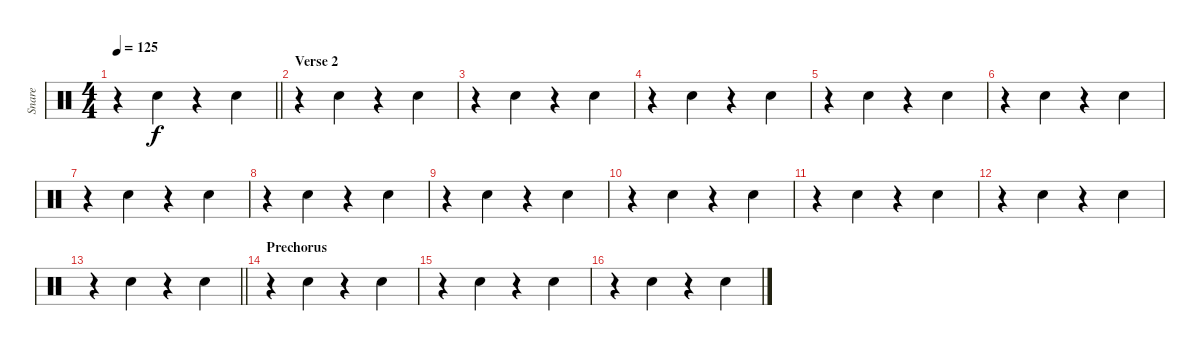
\track ("Snare" "Snare") {instrument percussion}
\staff {score}
\articulation defaults
\ts (4 4)
\tempo 125
\clef neutral
\barLineRight lightlight
\ks c
r.4{dy f} "Electric Snare (hit)".4 r.4 "Electric Snare (hit)".4 |
\section ("" "Verse 2")
r.4 "Electric Snare (hit)".4 r.4 "Electric Snare (hit)".4 |
r.4 "Electric Snare (hit)".4 r.4 "Electric Snare (hit)".4 |
r.4 "Electric Snare (hit)".4 r.4 "Electric Snare (hit)".4 |
r.4 "Electric Snare (hit)".4 r.4 "Electric Snare (hit)".4 |
r.4 "Electric Snare (hit)".4 r.4 "Electric Snare (hit)".4 |
r.4 "Electric Snare (hit)".4 r.4 "Electric Snare (hit)".4 |
r.4 "Electric Snare (hit)".4 r.4 "Electric Snare (hit)".4 |
r.4 "Electric Snare (hit)".4 r.4 "Electric Snare (hit)".4 |
r.4 "Electric Snare (hit)".4 r.4 "Electric Snare (hit)".4 |
r.4 "Electric Snare (hit)".4 r.4 "Electric Snare (hit)".4 |
r.4 "Electric Snare (hit)".4 r.4 "Electric Snare (hit)".4 |
\barLineRight lightlight
r.4 "Electric Snare (hit)".4 r.4 "Electric Snare (hit)".4 |
\section ("" "Prechorus")
r.4 "Electric Snare (hit)".4 r.4 "Electric Snare (hit)".4 |
r.4 "Electric Snare (hit)".4 r.4 "Electric Snare (hit)".4 |
r.4 "Electric Snare (hit)".4 r.4 "Electric Snare (hit)".4
